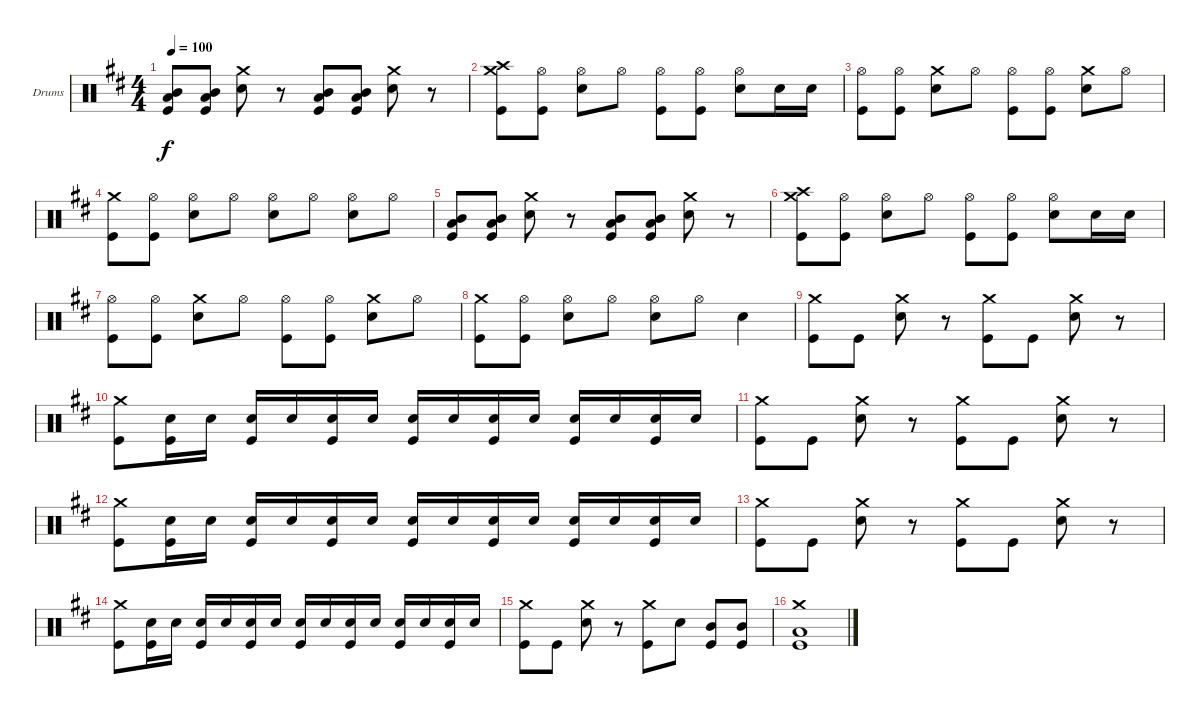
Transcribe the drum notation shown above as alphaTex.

\defaultSystemsLayout 4
\bracketExtendMode groupsimilarinstruments
\firstSystemTrackNameOrientation horizontal
\otherSystemsTrackNameOrientation horizontal
\track ("Drumkit" "Drums") {instrument percussion}
\staff {score}
\articulation defaults
\ts (4 4)
\tempo 100
\clef neutral
\scale
1.05044
\ks d
("Mid Tom (hit)" "Low Tom (hit)" "Kick (hit)").8{dy f} ("Mid Tom (hit)" "Low Tom (hit)" "Kick (hit)").8 ("Crash medium (hit)" "Snare (hit) 2").8 r.8 ("Mid Tom (hit)" "Low Tom (hit)" "Kick (hit)").8 ("Mid Tom (hit)" "Low Tom (hit)" "Kick (hit)").8 ("Crash medium (hit)" "Snare (hit) 2").8 r.8 |
\scale
0.949559 ("Crash high (hit)" "Crash medium (hit)" "Kick (hit)").8 ("Hi-Hat (open)" "Kick (hit)").8 ("Hi-Hat (open)" "Snare (hit) 2").8 "Hi-Hat (open)".8 ("Hi-Hat (open)" "Kick (hit)").8 ("Hi-Hat (open)" "Kick (hit)").8 ("Hi-Hat (open)" "Snare (hit) 2").8 "Snare (hit) 2".16 "Snare (hit) 2".16 |
\scale
1.05044 ("Hi-Hat (open)" "Kick (hit)").8 ("Hi-Hat (open)" "Kick (hit)").8 ("Crash medium (hit)" "Snare (hit) 2").8 "Hi-Hat (open)".8 ("Hi-Hat (open)" "Kick (hit)").8 ("Hi-Hat (open)" "Kick (hit)").8 ("Crash medium (hit)" "Snare (hit) 2").8 "Hi-Hat (open)".8 |
\scale
0.949559 ("Crash medium (hit)" "Kick (hit)").8 ("Hi-Hat (open)" "Kick (hit)").8 ("Hi-Hat (open)" "Snare (hit) 2").8 "Hi-Hat (open)".8 ("Hi-Hat (open)" "Snare (hit) 2").8 "Hi-Hat (open)".8 ("Hi-Hat (open)" "Snare (hit) 2").8 "Hi-Hat (open)".8 |
\scale
1.05044 ("Mid Tom (hit)" "Low Tom (hit)" "Kick (hit)").8 ("Mid Tom (hit)" "Low Tom (hit)" "Kick (hit)").8 ("Crash medium (hit)" "Snare (hit) 2").8 r.8 ("Mid Tom (hit)" "Low Tom (hit)" "Kick (hit)").8 ("Mid Tom (hit)" "Low Tom (hit)" "Kick (hit)").8 ("Crash medium (hit)" "Snare (hit) 2").8 r.8 |
\scale
0.949559 ("Crash high (hit)" "Crash medium (hit)" "Kick (hit)").8 ("Hi-Hat (open)" "Kick (hit)").8 ("Hi-Hat (open)" "Snare (hit) 2").8 "Hi-Hat (open)".8 ("Hi-Hat (open)" "Kick (hit)").8 ("Hi-Hat (open)" "Kick (hit)").8 ("Hi-Hat (open)" "Snare (hit) 2").8 "Snare (hit) 2".16 "Snare (hit) 2".16 |
\scale
1.05044 ("Hi-Hat (open)" "Kick (hit)").8 ("Hi-Hat (open)" "Kick (hit)").8 ("Crash medium (hit)" "Snare (hit) 2").8 "Hi-Hat (open)".8 ("Hi-Hat (open)" "Kick (hit)").8 ("Hi-Hat (open)" "Kick (hit)").8 ("Crash medium (hit)" "Snare (hit) 2").8 "Hi-Hat (open)".8 |
\scale
0.949559 ("Crash medium (hit)" "Kick (hit)").8 ("Hi-Hat (open)" "Kick (hit)").8 ("Hi-Hat (open)" "Snare (hit) 2").8 "Hi-Hat (open)".8 ("Hi-Hat (open)" "Snare (hit) 2").8 "Hi-Hat (open)".8 "Snare (hit) 2".4 |
\scale
1.05044 ("Crash medium (hit)" "Kick (hit)").8 "Kick (hit)".8 ("Crash medium (hit)" "Snare (hit) 2").8 r.8 ("Crash medium (hit)" "Kick (hit)").8 "Kick (hit)".8 ("Crash medium (hit)" "Snare (hit) 2").8 r.8 |
\scale
0.949559 ("Crash medium (hit)" "Kick (hit)").8 ("Snare (hit) 2" "Kick (hit)").16 "Snare (hit) 2".16 ("Snare (hit) 2" "Kick (hit)").16 "Snare (hit) 2".16 ("Snare (hit) 2" "Kick (hit)").16 "Snare (hit) 2".16 ("Snare (hit) 2" "Kick (hit)").16 "Snare (hit) 2".16 ("Snare (hit) 2" "Kick (hit)").16 "Snare (hit) 2".16 ("Snare (hit) 2" "Kick (hit)").16 "Snare (hit) 2".16 ("Snare (hit) 2" "Kick (hit)").16 "Snare (hit) 2".16 |
\scale
1.05044 ("Crash medium (hit)" "Kick (hit)").8 "Kick (hit)".8 ("Crash medium (hit)" "Snare (hit) 2").8 r.8 ("Crash medium (hit)" "Kick (hit)").8 "Kick (hit)".8 ("Crash medium (hit)" "Snare (hit) 2").8 r.8 |
\scale
0.949559 ("Crash medium (hit)" "Kick (hit)").8 ("Snare (hit) 2" "Kick (hit)").16 "Snare (hit) 2".16 ("Snare (hit) 2" "Kick (hit)").16 "Snare (hit) 2".16 ("Snare (hit) 2" "Kick (hit)").16 "Snare (hit) 2".16 ("Snare (hit) 2" "Kick (hit)").16 "Snare (hit) 2".16 ("Snare (hit) 2" "Kick (hit)").16 "Snare (hit) 2".16 ("Snare (hit) 2" "Kick (hit)").16 "Snare (hit) 2".16 ("Snare (hit) 2" "Kick (hit)").16 "Snare (hit) 2".16 |
\scale
1.05044 ("Crash medium (hit)" "Kick (hit)").8 "Kick (hit)".8 ("Crash medium (hit)" "Snare (hit) 2").8 r.8 ("Crash medium (hit)" "Kick (hit)").8 "Kick (hit)".8 ("Crash medium (hit)" "Snare (hit) 2").8 r.8 |
\scale
0.949559 ("Crash medium (hit)" "Kick (hit)").8 ("Snare (hit) 2" "Kick (hit)").16 "Snare (hit) 2".16 ("Snare (hit) 2" "Kick (hit)").16 "Snare (hit) 2".16 ("Snare (hit) 2" "Kick (hit)").16 "Snare (hit) 2".16 ("Snare (hit) 2" "Kick (hit)").16 "Snare (hit) 2".16 ("Snare (hit) 2" "Kick (hit)").16 "Snare (hit) 2".16 ("Snare (hit) 2" "Kick (hit)").16 "Snare (hit) 2".16 ("Snare (hit) 2" "Kick (hit)").16 "Snare (hit) 2".16 |
\scale
1.05044 ("Crash medium (hit)" "Kick (hit)").8 "Kick (hit)".8 ("Crash medium (hit)" "Snare (hit) 2").8 r.8 ("Crash medium (hit)" "Kick (hit)").8 "Snare (hit) 2".8 ("Mid Tom (hit)" "Kick (hit)").8 ("Mid Tom (hit)" "Kick (hit)").8 |
\scale
0.949559 ("Crash medium (hit)" "Low Tom (hit)" "Kick (hit)").1
